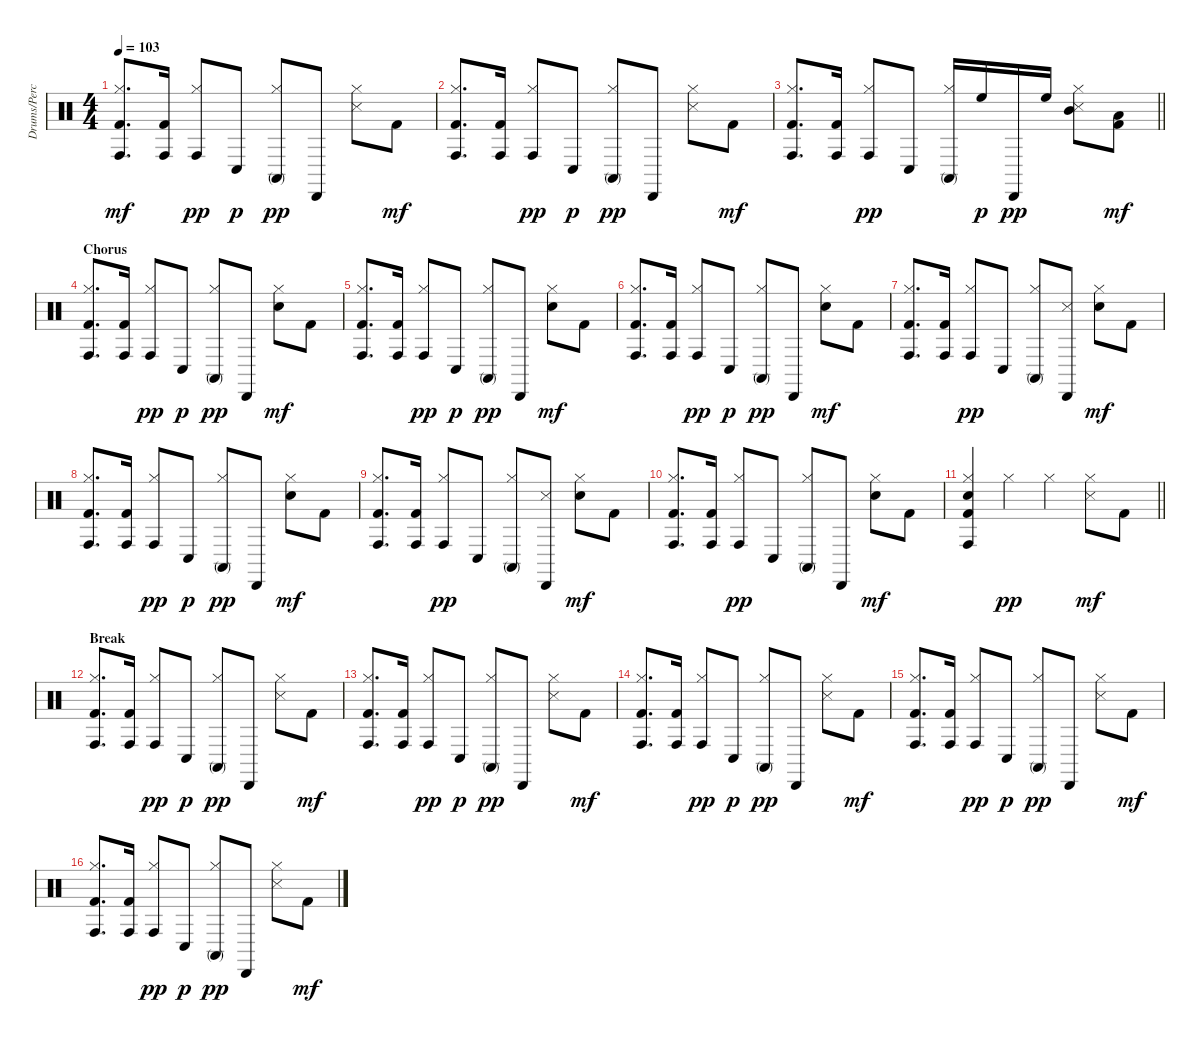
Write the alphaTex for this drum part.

\track ("Drums/Perc." "Drums/Perc") {instrument percussion}
\staff {score}
\articulation defaults
\ts (4 4)
\tempo 103
\clef neutral
\ks c
("Conga high (hit)" "Hi-Hat (closed)" "Kick (hit) 2").8{d dy mf} ("Conga high (hit)" "Kick (hit) 2").16 ("Conga high (hit)" "Hi-Hat (closed)").8{dy pp} "Conga low (hit)".8{dy p} ("Conga high (mute)" "Hi-Hat (closed)").8{dy pp} "Cabasa (hit)".8 ("Hi-Hat (closed)" "Snare (side stick) 3").8 "Kick (hit) 2".8{dy mf} |
("Conga high (hit)" "Hi-Hat (closed)" "Kick (hit) 2").8{d} ("Conga high (hit)" "Kick (hit) 2").16 ("Conga high (hit)" "Hi-Hat (closed)").8{dy pp} "Conga low (hit)".8{dy p} ("Conga high (mute)" "Hi-Hat (closed)").8{dy pp} "Cabasa (hit)".8 ("Hi-Hat (closed)" "Snare (side stick) 3").8 "Kick (hit) 2".8{dy mf} |
\barLineRight lightlight
("Conga high (hit)" "Hi-Hat (closed)" "Kick (hit) 2").8{d} ("Conga high (hit)" "Kick (hit) 2").16 ("Conga high (hit)" "Hi-Hat (closed)").8{dy pp} "Conga low (hit)".8 ("Conga high (mute)" "Hi-Hat (closed)").16 "High Floor Tom (hit)".16{dy p} "Cabasa (hit)".16{dy pp} "High Floor Tom (hit)".16 ("Mid Tom (hit)" "Hi-Hat (closed)" "Snare (side stick) 3").8 ("Low Floor Tom (hit)" "Kick (hit) 2").8{dy mf} |
\section ("" "Chorus")
("Conga high (hit)" "Hi-Hat (closed)" "Kick (hit) 2").8{d} ("Conga high (hit)" "Kick (hit) 2").16 ("Conga high (hit)" "Hi-Hat (closed)").8{dy pp} "Conga low (hit)".8{dy p} ("Conga high (mute)" "Hi-Hat (closed)").8{dy pp} "Cabasa (hit)".8 ("Hi-Hat (closed)" "Snare (hit) 2").8{dy mf} "Kick (hit) 2".8 |
("Conga high (hit)" "Hi-Hat (closed)" "Kick (hit) 2").8{d} ("Conga high (hit)" "Kick (hit) 2").16 ("Conga high (hit)" "Hi-Hat (closed)").8{dy pp} "Conga low (hit)".8{dy p} ("Conga high (mute)" "Hi-Hat (closed)").8{dy pp} "Cabasa (hit)".8 ("Hi-Hat (closed)" "Snare (hit) 2").8{dy mf} "Kick (hit) 2".8 |
("Conga high (hit)" "Hi-Hat (closed)" "Kick (hit) 2").8{d} ("Conga high (hit)" "Kick (hit) 2").16 ("Conga high (hit)" "Hi-Hat (closed)").8{dy pp} "Conga low (hit)".8{dy p} ("Conga high (mute)" "Hi-Hat (closed)").8{dy pp} "Cabasa (hit)".8 ("Hi-Hat (closed)" "Snare (hit) 2").8{dy mf} "Kick (hit) 2".8 |
("Conga high (hit)" "Hi-Hat (closed)" "Kick (hit) 2").8{d} ("Conga high (hit)" "Kick (hit) 2").16 ("Conga high (hit)" "Hi-Hat (closed)").8{dy pp} "Conga low (hit)".8 ("Conga high (mute)" "Hi-Hat (closed)").8 ("Cabasa (hit)" "Snare (side stick) 3").8 ("Hi-Hat (closed)" "Snare (hit) 2").8{dy mf} "Kick (hit) 2".8 |
("Conga high (hit)" "Hi-Hat (closed)" "Kick (hit) 2").8{d} ("Conga high (hit)" "Kick (hit) 2").16 ("Conga high (hit)" "Hi-Hat (closed)").8{dy pp} "Conga low (hit)".8{dy p} ("Conga high (mute)" "Hi-Hat (closed)").8{dy pp} "Cabasa (hit)".8 ("Hi-Hat (closed)" "Snare (hit) 2").8{dy mf} "Kick (hit) 2".8 |
("Conga high (hit)" "Hi-Hat (closed)" "Kick (hit) 2").8{d} ("Conga high (hit)" "Kick (hit) 2").16 ("Conga high (hit)" "Hi-Hat (closed)").8{dy pp} "Conga low (hit)".8 ("Conga high (mute)" "Hi-Hat (closed)").8 ("Cabasa (hit)" "Snare (side stick) 3").8 ("Hi-Hat (closed)" "Snare (hit) 2").8{dy mf} "Kick (hit) 2".8 |
("Conga high (hit)" "Hi-Hat (closed)" "Kick (hit) 2").8{d} ("Conga high (hit)" "Kick (hit) 2").16 ("Conga high (hit)" "Hi-Hat (closed)").8{dy pp} "Conga low (hit)".8 ("Conga high (mute)" "Hi-Hat (closed)").8 "Cabasa (hit)".8 ("Hi-Hat (closed)" "Snare (hit) 2").8{dy mf} "Kick (hit) 2".8 |
\barLineRight lightlight
("Conga high (hit)" "Hi-Hat (closed)" "Snare (hit) 2" "Kick (hit) 2").4 "Hi-Hat (closed)".4{dy pp} "Hi-Hat (closed)".4 ("Hi-Hat (closed)" "Snare (side stick) 3").8{dy mf} "Kick (hit) 2".8 |
\section ("" "Break")
("Conga high (hit)" "Hi-Hat (closed)" "Kick (hit) 2").8{d} ("Conga high (hit)" "Kick (hit) 2").16 ("Conga high (hit)" "Hi-Hat (closed)").8{dy pp} "Conga low (hit)".8{dy p} ("Conga high (mute)" "Hi-Hat (closed)").8{dy pp} "Cabasa (hit)".8 ("Hi-Hat (closed)" "Snare (side stick) 3").8 "Kick (hit) 2".8{dy mf} |
("Conga high (hit)" "Hi-Hat (closed)" "Kick (hit) 2").8{d} ("Conga high (hit)" "Kick (hit) 2").16 ("Conga high (hit)" "Hi-Hat (closed)").8{dy pp} "Conga low (hit)".8{dy p} ("Conga high (mute)" "Hi-Hat (closed)").8{dy pp} "Cabasa (hit)".8 ("Hi-Hat (closed)" "Snare (side stick) 3").8 "Kick (hit) 2".8{dy mf} |
("Conga high (hit)" "Hi-Hat (closed)" "Kick (hit) 2").8{d} ("Conga high (hit)" "Kick (hit) 2").16 ("Conga high (hit)" "Hi-Hat (closed)").8{dy pp} "Conga low (hit)".8{dy p} ("Conga high (mute)" "Hi-Hat (closed)").8{dy pp} "Cabasa (hit)".8 ("Hi-Hat (closed)" "Snare (side stick) 3").8 "Kick (hit) 2".8{dy mf} |
("Conga high (hit)" "Hi-Hat (closed)" "Kick (hit) 2").8{d} ("Conga high (hit)" "Kick (hit) 2").16 ("Conga high (hit)" "Hi-Hat (closed)").8{dy pp} "Conga low (hit)".8{dy p} ("Conga high (mute)" "Hi-Hat (closed)").8{dy pp} "Cabasa (hit)".8 ("Hi-Hat (closed)" "Snare (side stick) 3").8 "Kick (hit) 2".8{dy mf} |
("Conga high (hit)" "Hi-Hat (closed)" "Kick (hit) 2").8{d} ("Conga high (hit)" "Kick (hit) 2").16 ("Conga high (hit)" "Hi-Hat (closed)").8{dy pp} "Conga low (hit)".8{dy p} ("Conga high (mute)" "Hi-Hat (closed)").8{dy pp} "Cabasa (hit)".8 ("Hi-Hat (closed)" "Snare (side stick) 3").8 "Kick (hit) 2".8{dy mf}
